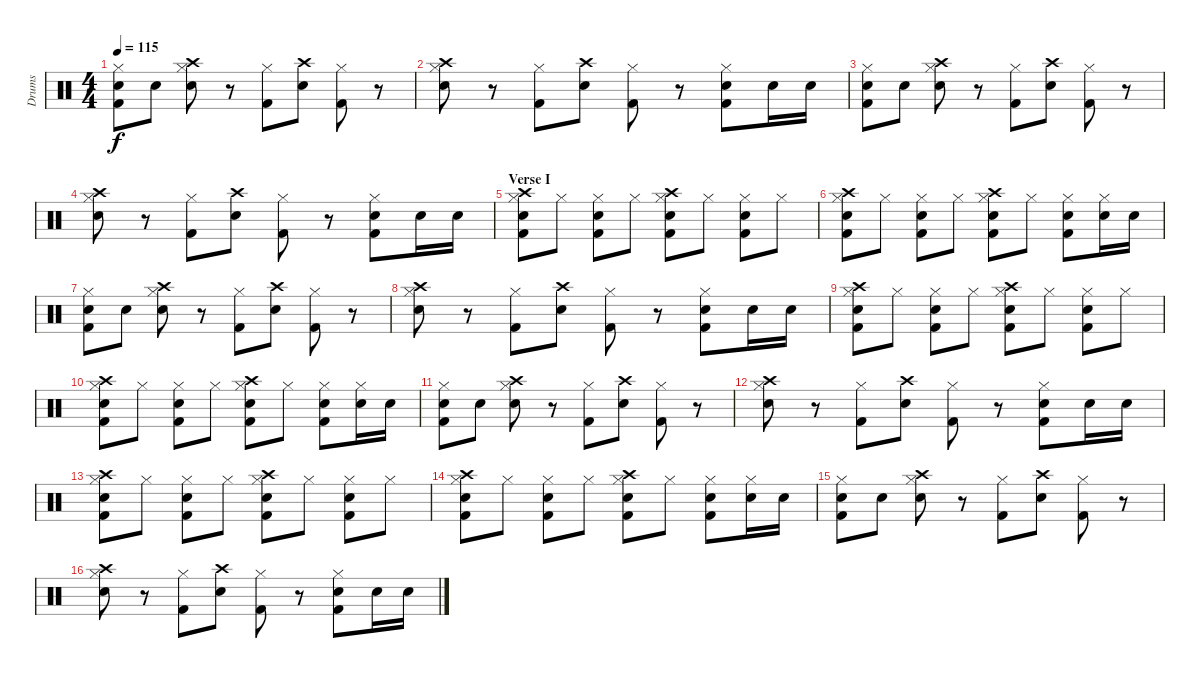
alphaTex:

\track ("Drums" "Drums") {instrument percussion}
\staff {score}
\articulation defaults
\ts (4 4)
\tempo 115
\clef neutral
\ks c
("Hi-Hat (closed)" "Kick (hit) 2" "Snare (hit) 2").8{dy f} "Snare (hit) 2".8 ("Hi-Hat (closed)" "Crash high (hit)" "Snare (hit) 2").8 r.8 ("Hi-Hat (closed)" "Kick (hit) 2").8 ("Crash high (hit)" "Snare (hit) 2").8 ("Hi-Hat (closed)" "Kick (hit) 2").8 r.8 |
("Hi-Hat (closed)" "Crash high (hit)" "Snare (hit) 2").8 r.8 ("Hi-Hat (closed)" "Kick (hit) 2").8 ("Crash high (hit)" "Snare (hit) 2").8 ("Hi-Hat (closed)" "Kick (hit) 2").8 r.8 ("Hi-Hat (closed)" "Kick (hit) 2" "Snare (hit) 2").8 "Snare (hit) 2".16 "Snare (hit) 2".16 |
("Hi-Hat (closed)" "Kick (hit) 2" "Snare (hit) 2").8 "Snare (hit) 2".8 ("Hi-Hat (closed)" "Crash high (hit)" "Snare (hit) 2").8 r.8 ("Hi-Hat (closed)" "Kick (hit) 2").8 ("Crash high (hit)" "Snare (hit) 2").8 ("Hi-Hat (closed)" "Kick (hit) 2").8 r.8 |
("Hi-Hat (closed)" "Crash high (hit)" "Snare (hit) 2").8 r.8 ("Hi-Hat (closed)" "Kick (hit) 2").8 ("Crash high (hit)" "Snare (hit) 2").8 ("Hi-Hat (closed)" "Kick (hit) 2").8 r.8 ("Hi-Hat (closed)" "Kick (hit) 2" "Snare (hit) 2").8 "Snare (hit) 2".16 "Snare (hit) 2".16 |
\section ("" "Verse I")
("Hi-Hat (closed)" "Kick (hit) 2" "Snare (hit) 2" "Crash high (hit)").8 "Hi-Hat (closed)".8 ("Hi-Hat (closed)" "Kick (hit) 2" "Snare (hit) 2").8 "Hi-Hat (closed)".8 ("Hi-Hat (closed)" "Kick (hit) 2" "Snare (hit) 2" "Crash high (hit)").8 "Hi-Hat (closed)".8 ("Hi-Hat (closed)" "Kick (hit) 2" "Snare (hit) 2").8 "Hi-Hat (closed)".8 |
("Hi-Hat (closed)" "Kick (hit) 2" "Snare (hit) 2" "Crash high (hit)").8 "Hi-Hat (closed)".8 ("Hi-Hat (closed)" "Kick (hit) 2" "Snare (hit) 2").8 "Hi-Hat (closed)".8 ("Hi-Hat (closed)" "Kick (hit) 2" "Snare (hit) 2" "Crash high (hit)").8 "Hi-Hat (closed)".8 ("Hi-Hat (closed)" "Kick (hit) 2" "Snare (hit) 2").8 ("Hi-Hat (closed)" "Snare (hit) 2").16 "Snare (hit) 2".16 |
("Hi-Hat (closed)" "Kick (hit) 2" "Snare (hit) 2").8 "Snare (hit) 2".8 ("Hi-Hat (closed)" "Crash high (hit)" "Snare (hit) 2").8 r.8 ("Hi-Hat (closed)" "Kick (hit) 2").8 ("Crash high (hit)" "Snare (hit) 2").8 ("Hi-Hat (closed)" "Kick (hit) 2").8 r.8 |
("Hi-Hat (closed)" "Crash high (hit)" "Snare (hit) 2").8 r.8 ("Hi-Hat (closed)" "Kick (hit) 2").8 ("Crash high (hit)" "Snare (hit) 2").8 ("Hi-Hat (closed)" "Kick (hit) 2").8 r.8 ("Hi-Hat (closed)" "Kick (hit) 2" "Snare (hit) 2").8 "Snare (hit) 2".16 "Snare (hit) 2".16 |
("Hi-Hat (closed)" "Kick (hit) 2" "Snare (hit) 2" "Crash high (hit)").8 "Hi-Hat (closed)".8 ("Hi-Hat (closed)" "Kick (hit) 2" "Snare (hit) 2").8 "Hi-Hat (closed)".8 ("Hi-Hat (closed)" "Kick (hit) 2" "Snare (hit) 2" "Crash high (hit)").8 "Hi-Hat (closed)".8 ("Hi-Hat (closed)" "Kick (hit) 2" "Snare (hit) 2").8 "Hi-Hat (closed)".8 |
("Hi-Hat (closed)" "Kick (hit) 2" "Snare (hit) 2" "Crash high (hit)").8 "Hi-Hat (closed)".8 ("Hi-Hat (closed)" "Kick (hit) 2" "Snare (hit) 2").8 "Hi-Hat (closed)".8 ("Hi-Hat (closed)" "Kick (hit) 2" "Snare (hit) 2" "Crash high (hit)").8 "Hi-Hat (closed)".8 ("Hi-Hat (closed)" "Kick (hit) 2" "Snare (hit) 2").8 ("Hi-Hat (closed)" "Snare (hit) 2").16 "Snare (hit) 2".16 |
("Hi-Hat (closed)" "Kick (hit) 2" "Snare (hit) 2").8 "Snare (hit) 2".8 ("Hi-Hat (closed)" "Crash high (hit)" "Snare (hit) 2").8 r.8 ("Hi-Hat (closed)" "Kick (hit) 2").8 ("Crash high (hit)" "Snare (hit) 2").8 ("Hi-Hat (closed)" "Kick (hit) 2").8 r.8 |
("Hi-Hat (closed)" "Crash high (hit)" "Snare (hit) 2").8 r.8 ("Hi-Hat (closed)" "Kick (hit) 2").8 ("Crash high (hit)" "Snare (hit) 2").8 ("Hi-Hat (closed)" "Kick (hit) 2").8 r.8 ("Hi-Hat (closed)" "Kick (hit) 2" "Snare (hit) 2").8 "Snare (hit) 2".16 "Snare (hit) 2".16 |
("Hi-Hat (closed)" "Kick (hit) 2" "Snare (hit) 2" "Crash high (hit)").8 "Hi-Hat (closed)".8 ("Hi-Hat (closed)" "Kick (hit) 2" "Snare (hit) 2").8 "Hi-Hat (closed)".8 ("Hi-Hat (closed)" "Kick (hit) 2" "Snare (hit) 2" "Crash high (hit)").8 "Hi-Hat (closed)".8 ("Hi-Hat (closed)" "Kick (hit) 2" "Snare (hit) 2").8 "Hi-Hat (closed)".8 |
("Hi-Hat (closed)" "Kick (hit) 2" "Snare (hit) 2" "Crash high (hit)").8 "Hi-Hat (closed)".8 ("Hi-Hat (closed)" "Kick (hit) 2" "Snare (hit) 2").8 "Hi-Hat (closed)".8 ("Hi-Hat (closed)" "Kick (hit) 2" "Snare (hit) 2" "Crash high (hit)").8 "Hi-Hat (closed)".8 ("Hi-Hat (closed)" "Kick (hit) 2" "Snare (hit) 2").8 ("Hi-Hat (closed)" "Snare (hit) 2").16 "Snare (hit) 2".16 |
("Hi-Hat (closed)" "Kick (hit) 2" "Snare (hit) 2").8 "Snare (hit) 2".8 ("Hi-Hat (closed)" "Crash high (hit)" "Snare (hit) 2").8 r.8 ("Hi-Hat (closed)" "Kick (hit) 2").8 ("Crash high (hit)" "Snare (hit) 2").8 ("Hi-Hat (closed)" "Kick (hit) 2").8 r.8 |
("Hi-Hat (closed)" "Crash high (hit)" "Snare (hit) 2").8 r.8 ("Hi-Hat (closed)" "Kick (hit) 2").8 ("Crash high (hit)" "Snare (hit) 2").8 ("Hi-Hat (closed)" "Kick (hit) 2").8 r.8 ("Hi-Hat (closed)" "Kick (hit) 2" "Snare (hit) 2").8 "Snare (hit) 2".16 "Snare (hit) 2".16
